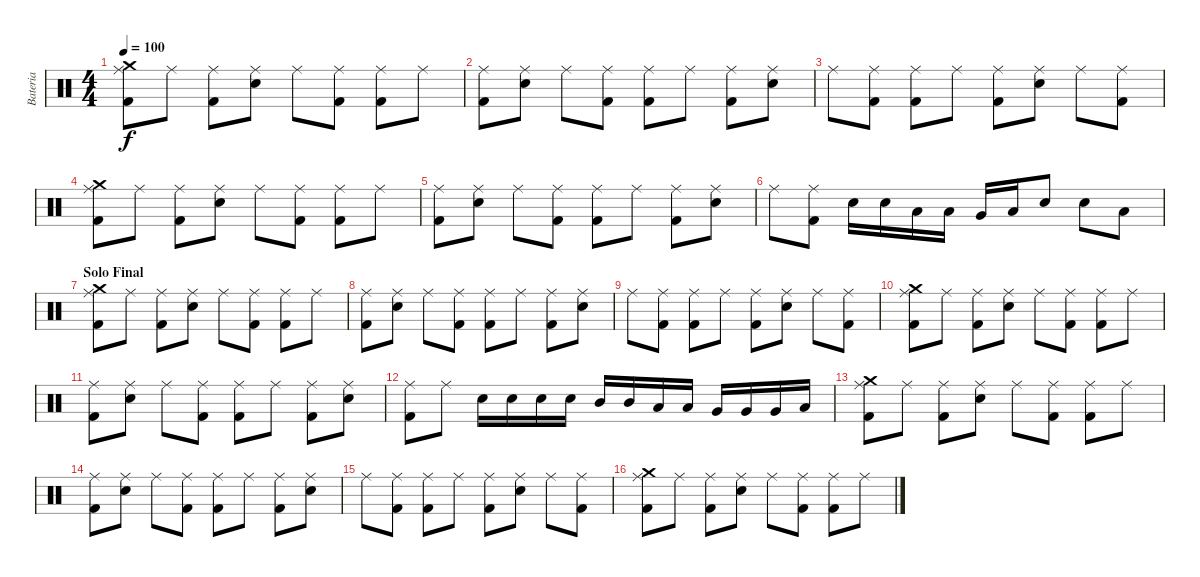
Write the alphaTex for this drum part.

\track ("Bateria" "Bateria") {instrument percussion}
\staff {score}
\articulation defaults
\ts (4 4)
\tempo 100
\clef neutral
\ks c
("Crash medium (hit)" "Ride (middle)" "Kick (hit) 2").8{dy f} "Ride (middle)".8 ("Kick (hit) 2" "Ride (middle)").8 ("Ride (middle)" "Snare (hit) 2").8 "Ride (middle)".8 ("Ride (middle)" "Kick (hit) 2").8 ("Ride (middle)" "Kick (hit) 2").8 "Ride (middle)".8 |
("Ride (middle)" "Kick (hit) 2").8 ("Ride (middle)" "Snare (hit) 2").8 "Ride (middle)".8 ("Ride (middle)" "Kick (hit) 2").8 ("Kick (hit) 2" "Ride (middle)").8 "Ride (middle)".8 ("Ride (middle)" "Kick (hit) 2").8 ("Ride (middle)" "Snare (hit) 2").8 |
"Ride (middle)".8 ("Ride (middle)" "Kick (hit) 2").8 ("Kick (hit) 2" "Ride (middle)").8 "Ride (middle)".8 ("Kick (hit) 2" "Ride (middle)").8 ("Ride (middle)" "Snare (hit) 2").8 "Ride (middle)".8 ("Ride (middle)" "Kick (hit) 2").8 |
("Crash medium (hit)" "Ride (middle)" "Kick (hit) 2").8 "Ride (middle)".8 ("Kick (hit) 2" "Ride (middle)").8 ("Ride (middle)" "Snare (hit) 2").8 "Ride (middle)".8 ("Ride (middle)" "Kick (hit) 2").8 ("Ride (middle)" "Kick (hit) 2").8 "Ride (middle)".8 |
("Ride (middle)" "Kick (hit) 2").8 ("Ride (middle)" "Snare (hit) 2").8 "Ride (middle)".8 ("Ride (middle)" "Kick (hit) 2").8 ("Kick (hit) 2" "Ride (middle)").8 "Ride (middle)".8 ("Ride (middle)" "Kick (hit) 2").8 ("Ride (middle)" "Snare (hit) 2").8 |
"Ride (middle)".8 ("Ride (middle)" "Kick (hit) 2").8 "Snare (hit) 2".16 "Snare (hit) 2".16 "Low Tom (hit)".16 "Low Tom (hit)".16 "Very Low Tom (hit)".16 "Low Floor Tom (hit)".16 "Snare (hit) 2".8 "Snare (hit) 2".8 "Low Tom (hit)".8 |
\section ("" "Solo Final")
("Crash medium (hit)" "Ride (middle)" "Kick (hit) 2").8 "Ride (middle)".8 ("Kick (hit) 2" "Ride (middle)").8 ("Ride (middle)" "Snare (hit) 2").8 "Ride (middle)".8 ("Ride (middle)" "Kick (hit) 2").8 ("Ride (middle)" "Kick (hit) 2").8 "Ride (middle)".8 |
("Ride (middle)" "Kick (hit) 2").8 ("Ride (middle)" "Snare (hit) 2").8 "Ride (middle)".8 ("Ride (middle)" "Kick (hit) 2").8 ("Kick (hit) 2" "Ride (middle)").8 "Ride (middle)".8 ("Ride (middle)" "Kick (hit) 2").8 ("Ride (middle)" "Snare (hit) 2").8 |
"Ride (middle)".8 ("Ride (middle)" "Kick (hit) 2").8 ("Kick (hit) 2" "Ride (middle)").8 "Ride (middle)".8 ("Kick (hit) 2" "Ride (middle)").8 ("Ride (middle)" "Snare (hit) 2").8 "Ride (middle)".8 ("Ride (middle)" "Kick (hit) 2").8 |
("Crash medium (hit)" "Ride (middle)" "Kick (hit) 2").8 "Ride (middle)".8 ("Kick (hit) 2" "Ride (middle)").8 ("Ride (middle)" "Snare (hit) 2").8 "Ride (middle)".8 ("Ride (middle)" "Kick (hit) 2").8 ("Ride (middle)" "Kick (hit) 2").8 "Ride (middle)".8 |
("Ride (middle)" "Kick (hit) 2").8 ("Ride (middle)" "Snare (hit) 2").8 "Ride (middle)".8 ("Ride (middle)" "Kick (hit) 2").8 ("Kick (hit) 2" "Ride (middle)").8 "Ride (middle)".8 ("Ride (middle)" "Kick (hit) 2").8 ("Ride (middle)" "Snare (hit) 2").8 |
("Ride (middle)" "Kick (hit) 2").8 "Ride (middle)".8 "Snare (hit) 2".16 "Snare (hit) 2".16 "Snare (hit) 2".16 "Snare (hit) 2".16 "Mid Tom (hit)".16 "Mid Tom (hit)".16 "Low Tom (hit)".16 "Low Tom (hit)".16 "Very Low Tom (hit)".16 "Very Low Tom (hit)".16 "Very Low Tom (hit)".16 "Low Floor Tom (hit)".16 |
("Crash medium (hit)" "Ride (middle)" "Kick (hit) 2").8 "Ride (middle)".8 ("Kick (hit) 2" "Ride (middle)").8 ("Ride (middle)" "Snare (hit) 2").8 "Ride (middle)".8 ("Ride (middle)" "Kick (hit) 2").8 ("Ride (middle)" "Kick (hit) 2").8 "Ride (middle)".8 |
("Ride (middle)" "Kick (hit) 2").8 ("Ride (middle)" "Snare (hit) 2").8 "Ride (middle)".8 ("Ride (middle)" "Kick (hit) 2").8 ("Kick (hit) 2" "Ride (middle)").8 "Ride (middle)".8 ("Ride (middle)" "Kick (hit) 2").8 ("Ride (middle)" "Snare (hit) 2").8 |
"Ride (middle)".8 ("Ride (middle)" "Kick (hit) 2").8 ("Kick (hit) 2" "Ride (middle)").8 "Ride (middle)".8 ("Kick (hit) 2" "Ride (middle)").8 ("Ride (middle)" "Snare (hit) 2").8 "Ride (middle)".8 ("Ride (middle)" "Kick (hit) 2").8 |
("Crash medium (hit)" "Ride (middle)" "Kick (hit) 2").8 "Ride (middle)".8 ("Kick (hit) 2" "Ride (middle)").8 ("Ride (middle)" "Snare (hit) 2").8 "Ride (middle)".8 ("Ride (middle)" "Kick (hit) 2").8 ("Ride (middle)" "Kick (hit) 2").8 "Ride (middle)".8
